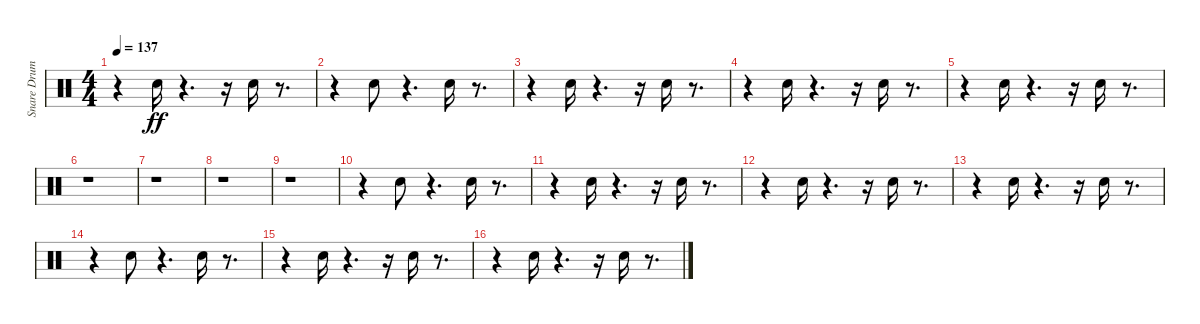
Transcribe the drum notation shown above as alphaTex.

\track ("Snare Drum" "Snare Drum") {instrument percussion}
\staff {score}
\articulation defaults
\ts (4 4)
\tempo 137
\clef neutral
\ks c
r.4{dy ff} "Electric Snare (hit)".16 r.4{d} r.16 "Electric Snare (hit)".16 r.8{d} |
r.4 "Electric Snare (hit)".8 r.4{d} "Electric Snare (hit)".16 r.8{d} |
r.4 "Electric Snare (hit)".16 r.4{d} r.16 "Electric Snare (hit)".16 r.8{d} |
r.4 "Electric Snare (hit)".16 r.4{d} r.16 "Electric Snare (hit)".16 r.8{d} |
r.4 "Electric Snare (hit)".16 r.4{d} r.16 "Electric Snare (hit)".16 r.8{d} |
r.1 |
r.1 |
r.1 |
r.1 |
r.4 "Electric Snare (hit)".8 r.4{d} "Electric Snare (hit)".16 r.8{d} |
r.4 "Electric Snare (hit)".16 r.4{d} r.16 "Electric Snare (hit)".16 r.8{d} |
r.4 "Electric Snare (hit)".16 r.4{d} r.16 "Electric Snare (hit)".16 r.8{d} |
r.4 "Electric Snare (hit)".16 r.4{d} r.16 "Electric Snare (hit)".16 r.8{d} |
r.4 "Electric Snare (hit)".8 r.4{d} "Electric Snare (hit)".16 r.8{d} |
r.4 "Electric Snare (hit)".16 r.4{d} r.16 "Electric Snare (hit)".16 r.8{d} |
r.4 "Electric Snare (hit)".16 r.4{d} r.16 "Electric Snare (hit)".16 r.8{d}
